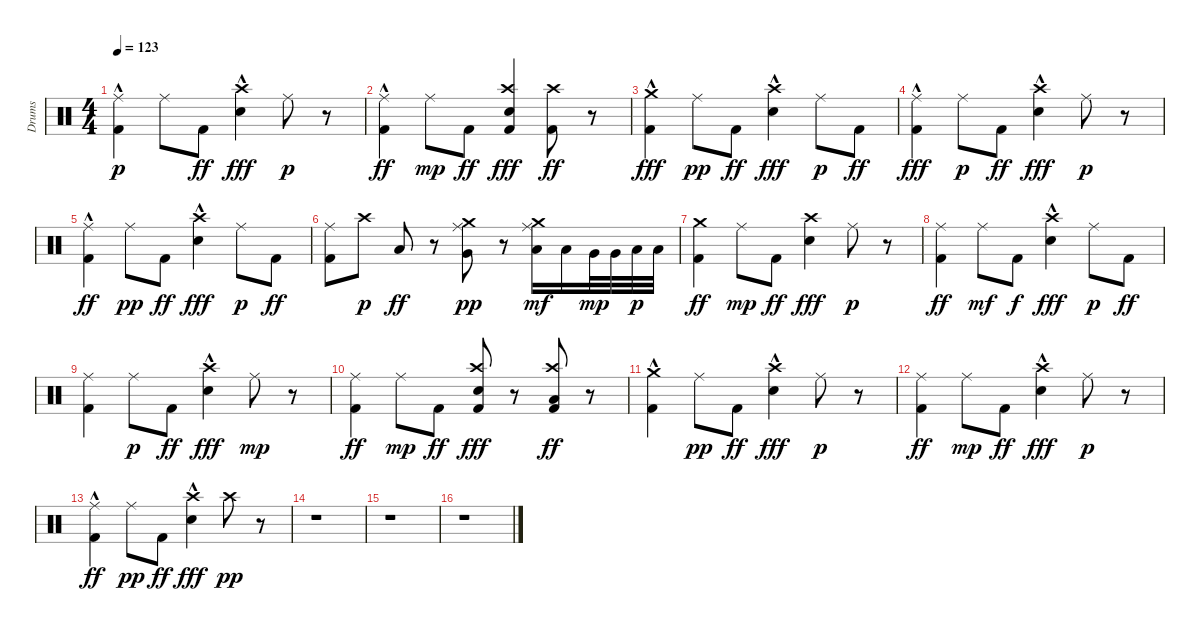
\track ("Drums" "Drums") {instrument percussion}
\staff {score}
\articulation defaults
\ts (4 4)
\tempo 123
\clef neutral
\ks c
("Ride (middle)" "Kick (hit) 2"{hac}).4{dy p} "Ride (middle)".8 "Kick (hit) 2".8{dy ff} ("Crash high (hit)" "Electric Snare (hit)"{hac}).4{dy fff} "Ride (middle)".8{dy p} r.8 |
("Ride (middle)" "Kick (hit) 2"{hac}).4{dy ff} "Ride (middle)".8{dy mp} "Kick (hit) 2".8{dy ff} ("Crash high (hit)" "Kick (hit) 2" "Electric Snare (hit)").4{dy fff} ("Crash high (hit)" "Kick (hit) 2").8{dy ff} r.8 |
("Crash medium (hit)" "Kick (hit) 2"{hac}).4{dy fff} "Ride (middle)".8{dy pp} "Kick (hit) 2".8{dy ff} ("Crash high (hit)" "Electric Snare (hit)"{hac}).4{dy fff} "Ride (middle)".8{dy p} "Kick (hit) 2".8{dy ff} |
("Ride (middle)" "Kick (hit) 2"{hac}).4{dy fff} "Ride (middle)".8{dy p} "Kick (hit) 2".8{dy ff} ("Crash high (hit)" "Electric Snare (hit)"{hac}).4{dy fff} "Ride (middle)".8{dy p} r.8 |
("Ride (middle)" "Kick (hit) 2"{hac}).4{dy ff} "Ride (middle)".8{dy pp} "Kick (hit) 2".8{dy ff} ("Crash high (hit)" "Electric Snare (hit)"{hac}).4{dy fff} "Ride (middle)".8{dy p} "Kick (hit) 2".8{dy ff} |
("Ride (middle)" "Kick (hit) 2").8 "Crash high (hit)".8{dy p} "Low Tom (hit)".8{dy ff} r.8 ("Ride (middle)" "Crash medium (hit)" "Very Low Tom (hit)").8{dy pp} r.8 ("Ride (middle)" "Crash medium (hit)" "Low Tom (hit)").16{dy mf} "Low Tom (hit)".16 "Very Low Tom (hit)".32{dy mp} "Very Low Tom (hit)".32 "Low Floor Tom (hit)".32{dy p} "Low Floor Tom (hit)".32 |
("Crash medium (hit)" "Kick (hit) 2").4{dy ff} "Ride (middle)".8{dy mp} "Kick (hit) 2".8{dy ff} ("Crash high (hit)" "Electric Snare (hit)").4{dy fff} "Ride (middle)".8{dy p} r.8 |
("Ride (middle)" "Kick (hit) 2").4{dy ff} "Ride (middle)".8{dy mf} "Kick (hit) 2".8{dy f} ("Crash high (hit)" "Electric Snare (hit)"{hac}).4{dy fff} "Ride (middle)".8{dy p} "Kick (hit) 2".8{dy ff} |
("Ride (middle)" "Kick (hit) 2").4 "Ride (middle)".8{dy p} "Kick (hit) 2".8{dy ff} ("Crash high (hit)" "Electric Snare (hit)"{hac}).4{dy fff} "Ride (middle)".8{dy mp} r.8 |
("Ride (middle)" "Kick (hit) 2").4{dy ff} "Ride (middle)".8{dy mp} "Kick (hit) 2".8{dy ff} ("Crash high (hit)" "Electric Snare (hit)" "Kick (hit) 2").8{dy fff} r.8 ("Crash high (hit)" "Low Floor Tom (hit)" "Kick (hit) 2").8{dy ff} r.8 |
("Crash medium (hit)" "Kick (hit) 2"{hac}).4 "Ride (middle)".8{dy pp} "Kick (hit) 2".8{dy ff} ("Crash high (hit)" "Electric Snare (hit)"{hac}).4{dy fff} "Ride (middle)".8{dy p} r.8 |
("Ride (middle)" "Kick (hit) 2").4{dy ff} "Ride (middle)".8{dy mp} "Kick (hit) 2".8{dy ff} ("Crash high (hit)" "Electric Snare (hit)"{hac}).4{dy fff} "Ride (middle)".8{dy p} r.8 |
("Ride (middle)" "Kick (hit) 2"{hac}).4{dy ff} "Ride (middle)".8{dy pp} "Kick (hit) 2".8{dy ff} ("Crash high (hit)" "Electric Snare (hit)"{hac}).4{dy fff} "Crash high (hit)".8{dy pp} r.8 |
r.1 |
r.1 |
r.1
